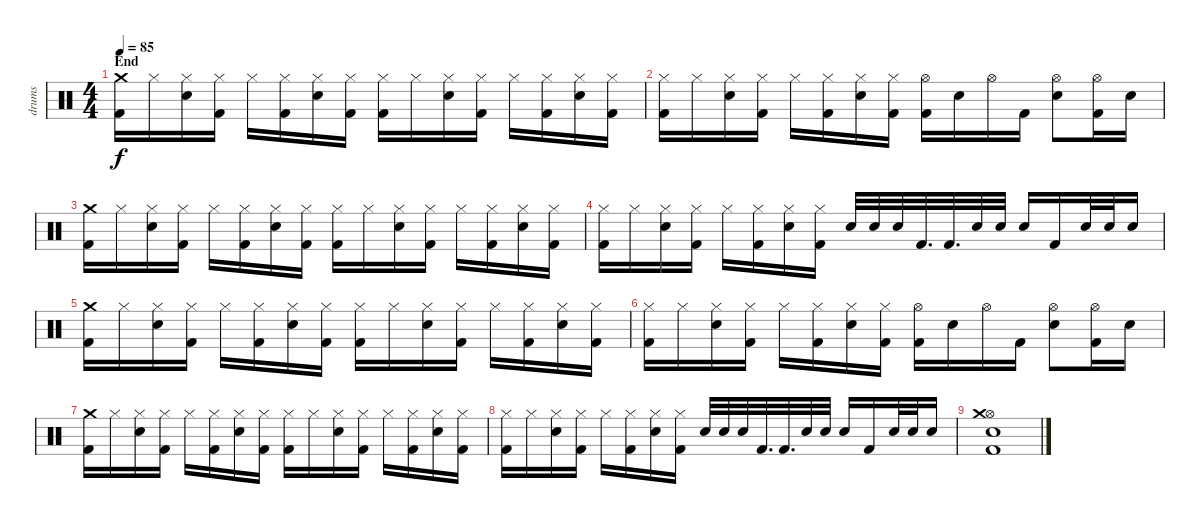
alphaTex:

\track ("drums" "drums") {instrument percussion}
\staff {score}
\articulation defaults
\ts (4 4)
\section ("" "End")
\tempo 85
\clef neutral
\ks c
("Crash medium (hit)" "Kick (hit) 2").16{dy f} "Hi-Hat (closed)".16 ("Hi-Hat (closed)" "Electric Snare (hit)").16 ("Hi-Hat (closed)" "Kick (hit) 2").16 "Hi-Hat (closed)".16 ("Hi-Hat (closed)" "Kick (hit) 2").16 ("Hi-Hat (closed)" "Electric Snare (hit)").16 ("Hi-Hat (closed)" "Kick (hit) 2").16 ("Hi-Hat (closed)" "Kick (hit) 2").16 "Hi-Hat (closed)".16 ("Hi-Hat (closed)" "Electric Snare (hit)").16 ("Hi-Hat (closed)" "Kick (hit) 2").16 "Hi-Hat (closed)".16 ("Hi-Hat (closed)" "Kick (hit) 2").16 ("Hi-Hat (closed)" "Electric Snare (hit)").16 ("Hi-Hat (closed)" "Kick (hit) 2").16 |
("Hi-Hat (closed)" "Kick (hit) 2").16 "Hi-Hat (closed)".16 ("Hi-Hat (closed)" "Electric Snare (hit)").16 ("Hi-Hat (closed)" "Kick (hit) 2").16 "Hi-Hat (closed)".16 ("Hi-Hat (closed)" "Kick (hit) 2").16 ("Hi-Hat (closed)" "Electric Snare (hit)").16 ("Hi-Hat (closed)" "Kick (hit) 2").16 ("Hi-Hat (open)" "Kick (hit) 2").16 "Electric Snare (hit)".16 "Hi-Hat (open)".16 "Kick (hit) 2".16 ("Hi-Hat (open)" "Electric Snare (hit)").8 ("Hi-Hat (open)" "Kick (hit) 2").16 "Electric Snare (hit)".16 |
("Crash medium (hit)" "Kick (hit) 2").16 "Hi-Hat (closed)".16 ("Hi-Hat (closed)" "Electric Snare (hit)").16 ("Hi-Hat (closed)" "Kick (hit) 2").16 "Hi-Hat (closed)".16 ("Hi-Hat (closed)" "Kick (hit) 2").16 ("Hi-Hat (closed)" "Electric Snare (hit)").16 ("Hi-Hat (closed)" "Kick (hit) 2").16 ("Hi-Hat (closed)" "Kick (hit) 2").16 "Hi-Hat (closed)".16 ("Hi-Hat (closed)" "Electric Snare (hit)").16 ("Hi-Hat (closed)" "Kick (hit) 2").16 "Hi-Hat (closed)".16 ("Hi-Hat (closed)" "Kick (hit) 2").16 ("Hi-Hat (closed)" "Electric Snare (hit)").16 ("Hi-Hat (closed)" "Kick (hit) 2").16 |
("Hi-Hat (closed)" "Kick (hit) 2").16 "Hi-Hat (closed)".16 ("Hi-Hat (closed)" "Electric Snare (hit)").16 ("Hi-Hat (closed)" "Kick (hit) 2").16 "Hi-Hat (closed)".16 ("Hi-Hat (closed)" "Kick (hit) 2").16 ("Hi-Hat (closed)" "Electric Snare (hit)").16 ("Hi-Hat (closed)" "Kick (hit) 2").16 "Electric Snare (hit)".32 "Electric Snare (hit)".32 "Electric Snare (hit)".32 "Kick (hit) 2".32{d} "Kick (hit) 2".32{d} "Electric Snare (hit)".32 "Electric Snare (hit)".32 "Electric Snare (hit)".16 "Kick (hit) 2".16 "Electric Snare (hit)".32 "Electric Snare (hit)".32 "Electric Snare (hit)".16 |
("Crash medium (hit)" "Kick (hit) 2").16 "Hi-Hat (closed)".16 ("Hi-Hat (closed)" "Electric Snare (hit)").16 ("Hi-Hat (closed)" "Kick (hit) 2").16 "Hi-Hat (closed)".16 ("Hi-Hat (closed)" "Kick (hit) 2").16 ("Hi-Hat (closed)" "Electric Snare (hit)").16 ("Hi-Hat (closed)" "Kick (hit) 2").16 ("Hi-Hat (closed)" "Kick (hit) 2").16 "Hi-Hat (closed)".16 ("Hi-Hat (closed)" "Electric Snare (hit)").16 ("Hi-Hat (closed)" "Kick (hit) 2").16 "Hi-Hat (closed)".16 ("Hi-Hat (closed)" "Kick (hit) 2").16 ("Hi-Hat (closed)" "Electric Snare (hit)").16 ("Hi-Hat (closed)" "Kick (hit) 2").16 |
("Hi-Hat (closed)" "Kick (hit) 2").16 "Hi-Hat (closed)".16 ("Hi-Hat (closed)" "Electric Snare (hit)").16 ("Hi-Hat (closed)" "Kick (hit) 2").16 "Hi-Hat (closed)".16 ("Hi-Hat (closed)" "Kick (hit) 2").16 ("Hi-Hat (closed)" "Electric Snare (hit)").16 ("Hi-Hat (closed)" "Kick (hit) 2").16 ("Hi-Hat (open)" "Kick (hit) 2").16 "Electric Snare (hit)".16 "Hi-Hat (open)".16 "Kick (hit) 2".16 ("Hi-Hat (open)" "Electric Snare (hit)").8 ("Hi-Hat (open)" "Kick (hit) 2").16 "Electric Snare (hit)".16 |
("Crash medium (hit)" "Kick (hit) 2").16 "Hi-Hat (closed)".16 ("Hi-Hat (closed)" "Electric Snare (hit)").16 ("Hi-Hat (closed)" "Kick (hit) 2").16 "Hi-Hat (closed)".16 ("Hi-Hat (closed)" "Kick (hit) 2").16 ("Hi-Hat (closed)" "Electric Snare (hit)").16 ("Hi-Hat (closed)" "Kick (hit) 2").16 ("Hi-Hat (closed)" "Kick (hit) 2").16 "Hi-Hat (closed)".16 ("Hi-Hat (closed)" "Electric Snare (hit)").16 ("Hi-Hat (closed)" "Kick (hit) 2").16 "Hi-Hat (closed)".16 ("Hi-Hat (closed)" "Kick (hit) 2").16 ("Hi-Hat (closed)" "Electric Snare (hit)").16 ("Hi-Hat (closed)" "Kick (hit) 2").16 |
("Hi-Hat (closed)" "Kick (hit) 2").16 "Hi-Hat (closed)".16 ("Hi-Hat (closed)" "Electric Snare (hit)").16 ("Hi-Hat (closed)" "Kick (hit) 2").16 "Hi-Hat (closed)".16 ("Hi-Hat (closed)" "Kick (hit) 2").16 ("Hi-Hat (closed)" "Electric Snare (hit)").16 ("Hi-Hat (closed)" "Kick (hit) 2").16 "Electric Snare (hit)".32 "Electric Snare (hit)".32 "Electric Snare (hit)".32 "Kick (hit) 2".32{d} "Kick (hit) 2".32{d} "Electric Snare (hit)".32 "Electric Snare (hit)".32 "Electric Snare (hit)".16 "Kick (hit) 2".16 "Electric Snare (hit)".32 "Electric Snare (hit)".32 "Electric Snare (hit)".16 |
("Hi-Hat (open)" "Crash medium (hit)" "Electric Snare (hit)" "Kick (hit) 2").1
